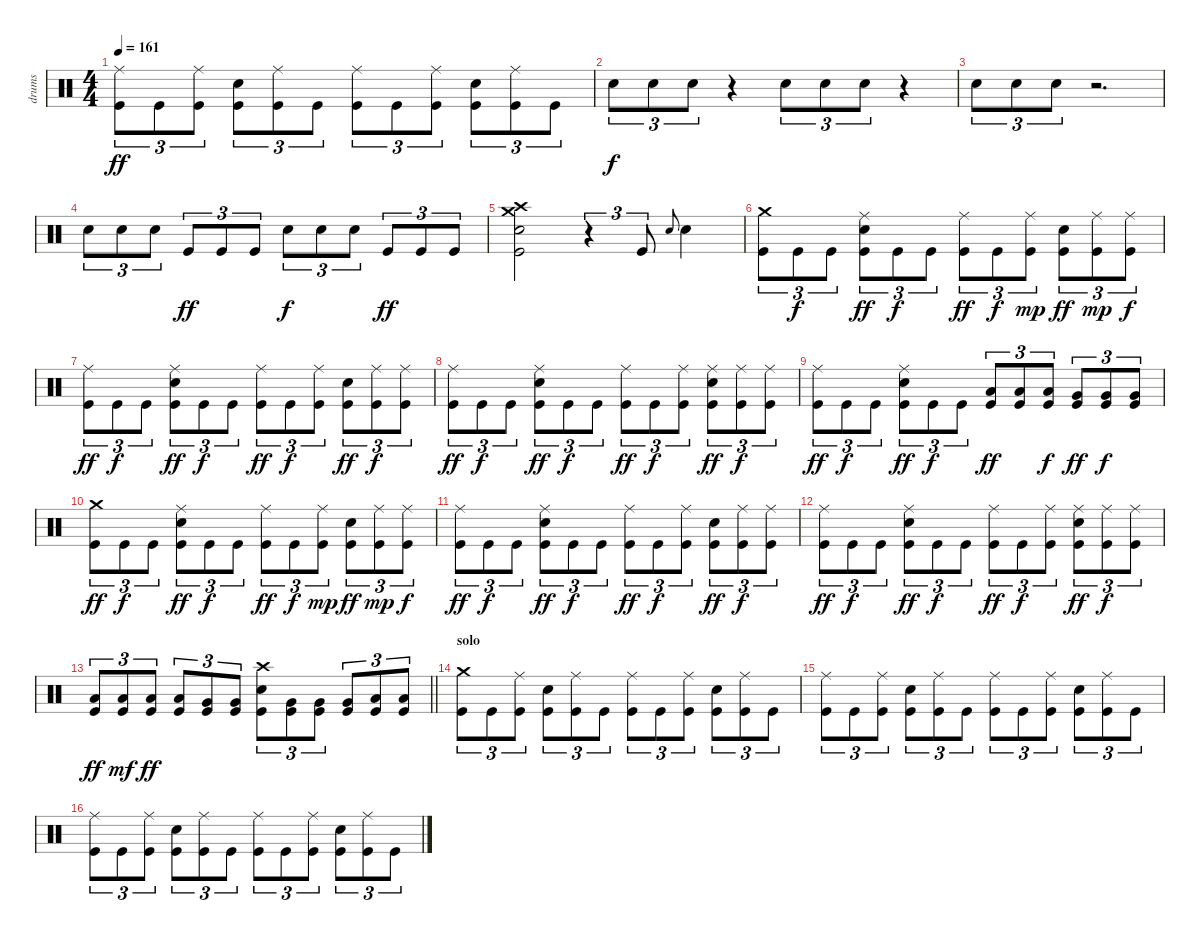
\track ("drums" "drums") {instrument percussion}
\staff {score}
\articulation defaults
\ts (4 4)
\tempo 161
\clef neutral
\ks c
("Ride (middle)" "Kick (hit)").8{tu (3 2) dy ff} "Kick (hit)".8{tu (3 2)} ("Ride (middle)" "Kick (hit)").8{tu (3 2)} ("Electric Snare (hit)" "Kick (hit)").8{tu (3 2)} ("Ride (middle)" "Kick (hit)").8{tu (3 2)} "Kick (hit)".8{tu (3 2)} ("Ride (middle)" "Kick (hit)").8{tu (3 2)} "Kick (hit)".8{tu (3 2)} ("Ride (middle)" "Kick (hit)").8{tu (3 2)} ("Electric Snare (hit)" "Kick (hit)").8{tu (3 2)} ("Ride (middle)" "Kick (hit)").8{tu (3 2)} "Kick (hit)".8{tu (3 2)} |
"Electric Snare (hit)".8{tu (3 2) dy f} "Electric Snare (hit)".8{tu (3 2)} "Electric Snare (hit)".8{tu (3 2)} r.4 "Electric Snare (hit)".8{tu (3 2)} "Electric Snare (hit)".8{tu (3 2)} "Electric Snare (hit)".8{tu (3 2)} r.4 |
"Electric Snare (hit)".8{tu (3 2)} "Electric Snare (hit)".8{tu (3 2)} "Electric Snare (hit)".8{tu (3 2)} r.2{d} |
"Electric Snare (hit)".8{tu (3 2)} "Electric Snare (hit)".8{tu (3 2)} "Electric Snare (hit)".8{tu (3 2)} "Kick (hit)".8{tu (3 2) dy ff} "Kick (hit)".8{tu (3 2)} "Kick (hit)".8{tu (3 2)} "Electric Snare (hit)".8{tu (3 2) dy f} "Electric Snare (hit)".8{tu (3 2)} "Electric Snare (hit)".8{tu (3 2)} "Kick (hit)".8{tu (3 2) dy ff} "Kick (hit)".8{tu (3 2)} "Kick (hit)".8{tu (3 2)} |
("Crash medium (hit)" "Crash high (hit)" "Electric Snare (hit)" "Kick (hit)").2 r.4{tu (3 2)} "Kick (hit)".8{tu (3 2)} "Electric Snare (hit)".8{gr onbeat} "Electric Snare (hit)".4 |
("Crash medium (hit)" "Kick (hit)").8{tu (3 2)} "Kick (hit)".8{tu (3 2) dy f} "Kick (hit)".8{tu (3 2)} ("Ride (middle)" "Electric Snare (hit)" "Kick (hit)").8{tu (3 2) dy ff} "Kick (hit)".8{tu (3 2) dy f} "Kick (hit)".8{tu (3 2)} ("Ride (middle)" "Kick (hit)").8{tu (3 2) dy ff} "Kick (hit)".8{tu (3 2) dy f} ("Ride (middle)" "Kick (hit)").8{tu (3 2) dy mp} ("Electric Snare (hit)" "Kick (hit)").8{tu (3 2) dy ff} ("Ride (middle)" "Kick (hit)").8{tu (3 2) dy mp} ("Ride (middle)" "Kick (hit)").8{tu (3 2) dy f} |
("Ride (middle)" "Kick (hit)").8{tu (3 2) dy ff} "Kick (hit)".8{tu (3 2) dy f} "Kick (hit)".8{tu (3 2)} ("Ride (middle)" "Electric Snare (hit)" "Kick (hit)").8{tu (3 2) dy ff} "Kick (hit)".8{tu (3 2) dy f} "Kick (hit)".8{tu (3 2)} ("Ride (middle)" "Kick (hit)").8{tu (3 2) dy ff} "Kick (hit)".8{tu (3 2) dy f} ("Ride (middle)" "Kick (hit)").8{tu (3 2)} ("Electric Snare (hit)" "Kick (hit)").8{tu (3 2) dy ff} ("Ride (middle)" "Kick (hit)").8{tu (3 2) dy f} ("Ride (middle)" "Kick (hit)").8{tu (3 2)} |
("Ride (middle)" "Kick (hit)").8{tu (3 2) dy ff} "Kick (hit)".8{tu (3 2) dy f} "Kick (hit)".8{tu (3 2)} ("Ride (middle)" "Electric Snare (hit)" "Kick (hit)").8{tu (3 2) dy ff} "Kick (hit)".8{tu (3 2) dy f} "Kick (hit)".8{tu (3 2)} ("Ride (middle)" "Kick (hit)").8{tu (3 2) dy ff} "Kick (hit)".8{tu (3 2) dy f} ("Ride (middle)" "Kick (hit)").8{tu (3 2)} ("Ride (middle)" "Electric Snare (hit)" "Kick (hit)").8{tu (3 2) dy ff} ("Ride (middle)" "Kick (hit)").8{tu (3 2) dy f} ("Ride (middle)" "Kick (hit)").8{tu (3 2)} |
("Ride (middle)" "Kick (hit)").8{tu (3 2) dy ff} "Kick (hit)".8{tu (3 2) dy f} "Kick (hit)".8{tu (3 2)} ("Ride (middle)" "Electric Snare (hit)" "Kick (hit)").8{tu (3 2) dy ff} "Kick (hit)".8{tu (3 2) dy f} "Kick (hit)".8{tu (3 2)} ("Low Tom (hit)" "Kick (hit)").8{tu (3 2) dy ff} ("Low Tom (hit)" "Kick (hit)").8{tu (3 2)} ("Low Tom (hit)" "Kick (hit)").8{tu (3 2) dy f} ("Very Low Tom (hit)" "Kick (hit)").8{tu (3 2) dy ff} ("Very Low Tom (hit)" "Kick (hit)").8{tu (3 2) dy f} ("Very Low Tom (hit)" "Kick (hit)").8{tu (3 2)} |
("Crash medium (hit)" "Kick (hit)").8{tu (3 2) dy ff} "Kick (hit)".8{tu (3 2) dy f} "Kick (hit)".8{tu (3 2)} ("Ride (middle)" "Electric Snare (hit)" "Kick (hit)").8{tu (3 2) dy ff} "Kick (hit)".8{tu (3 2) dy f} "Kick (hit)".8{tu (3 2)} ("Ride (middle)" "Kick (hit)").8{tu (3 2) dy ff} "Kick (hit)".8{tu (3 2) dy f} ("Ride (middle)" "Kick (hit)").8{tu (3 2) dy mp} ("Electric Snare (hit)" "Kick (hit)").8{tu (3 2) dy ff} ("Ride (middle)" "Kick (hit)").8{tu (3 2) dy mp} ("Ride (middle)" "Kick (hit)").8{tu (3 2) dy f} |
("Ride (middle)" "Kick (hit)").8{tu (3 2) dy ff} "Kick (hit)".8{tu (3 2) dy f} "Kick (hit)".8{tu (3 2)} ("Ride (middle)" "Electric Snare (hit)" "Kick (hit)").8{tu (3 2) dy ff} "Kick (hit)".8{tu (3 2) dy f} "Kick (hit)".8{tu (3 2)} ("Ride (middle)" "Kick (hit)").8{tu (3 2) dy ff} "Kick (hit)".8{tu (3 2) dy f} ("Ride (middle)" "Kick (hit)").8{tu (3 2)} ("Electric Snare (hit)" "Kick (hit)").8{tu (3 2) dy ff} ("Ride (middle)" "Kick (hit)").8{tu (3 2) dy f} ("Ride (middle)" "Kick (hit)").8{tu (3 2)} |
("Ride (middle)" "Kick (hit)").8{tu (3 2) dy ff} "Kick (hit)".8{tu (3 2) dy f} "Kick (hit)".8{tu (3 2)} ("Ride (middle)" "Electric Snare (hit)" "Kick (hit)").8{tu (3 2) dy ff} "Kick (hit)".8{tu (3 2) dy f} "Kick (hit)".8{tu (3 2)} ("Ride (middle)" "Kick (hit)").8{tu (3 2) dy ff} "Kick (hit)".8{tu (3 2) dy f} ("Ride (middle)" "Kick (hit)").8{tu (3 2)} ("Ride (middle)" "Electric Snare (hit)" "Kick (hit)").8{tu (3 2) dy ff} ("Ride (middle)" "Kick (hit)").8{tu (3 2) dy f} ("Ride (middle)" "Kick (hit)").8{tu (3 2)} |
\barLineRight lightlight
("Low Tom (hit)" "Kick (hit)").8{tu (3 2) dy ff} ("Low Tom (hit)" "Kick (hit)").8{tu (3 2) dy mf} ("Low Tom (hit)" "Kick (hit)").8{tu (3 2) dy ff} ("Low Tom (hit)" "Kick (hit)").8{tu (3 2)} ("Very Low Tom (hit)" "Kick (hit)").8{tu (3 2)} ("Very Low Tom (hit)" "Kick (hit)").8{tu (3 2)} ("Crash high (hit)" "Electric Snare (hit)" "Kick (hit)").8{tu (3 2)} ("Very Low Tom (hit)" "Kick (hit)").8{tu (3 2)} ("Very Low Tom (hit)" "Kick (hit)").8{tu (3 2)} ("Very Low Tom (hit)" "Kick (hit)").8{tu (3 2)} ("Low Floor Tom (hit)" "Kick (hit)").8{tu (3 2)} ("Low Floor Tom (hit)" "Kick (hit)").8{tu (3 2)} |
\section ("" "solo")
("Crash medium (hit)" "Kick (hit)").8{tu (3 2)} "Kick (hit)".8{tu (3 2)} ("Ride (middle)" "Kick (hit)").8{tu (3 2)} ("Electric Snare (hit)" "Kick (hit)").8{tu (3 2)} ("Ride (middle)" "Kick (hit)").8{tu (3 2)} "Kick (hit)".8{tu (3 2)} ("Ride (middle)" "Kick (hit)").8{tu (3 2)} "Kick (hit)".8{tu (3 2)} ("Ride (middle)" "Kick (hit)").8{tu (3 2)} ("Electric Snare (hit)" "Kick (hit)").8{tu (3 2)} ("Ride (middle)" "Kick (hit)").8{tu (3 2)} "Kick (hit)".8{tu (3 2)} |
("Ride (middle)" "Kick (hit)").8{tu (3 2)} "Kick (hit)".8{tu (3 2)} ("Ride (middle)" "Kick (hit)").8{tu (3 2)} ("Electric Snare (hit)" "Kick (hit)").8{tu (3 2)} ("Ride (middle)" "Kick (hit)").8{tu (3 2)} "Kick (hit)".8{tu (3 2)} ("Ride (middle)" "Kick (hit)").8{tu (3 2)} "Kick (hit)".8{tu (3 2)} ("Ride (middle)" "Kick (hit)").8{tu (3 2)} ("Electric Snare (hit)" "Kick (hit)").8{tu (3 2)} ("Ride (middle)" "Kick (hit)").8{tu (3 2)} "Kick (hit)".8{tu (3 2)} |
("Ride (middle)" "Kick (hit)").8{tu (3 2)} "Kick (hit)".8{tu (3 2)} ("Ride (middle)" "Kick (hit)").8{tu (3 2)} ("Electric Snare (hit)" "Kick (hit)").8{tu (3 2)} ("Ride (middle)" "Kick (hit)").8{tu (3 2)} "Kick (hit)".8{tu (3 2)} ("Ride (middle)" "Kick (hit)").8{tu (3 2)} "Kick (hit)".8{tu (3 2)} ("Ride (middle)" "Kick (hit)").8{tu (3 2)} ("Electric Snare (hit)" "Kick (hit)").8{tu (3 2)} ("Ride (middle)" "Kick (hit)").8{tu (3 2)} "Kick (hit)".8{tu (3 2)}
